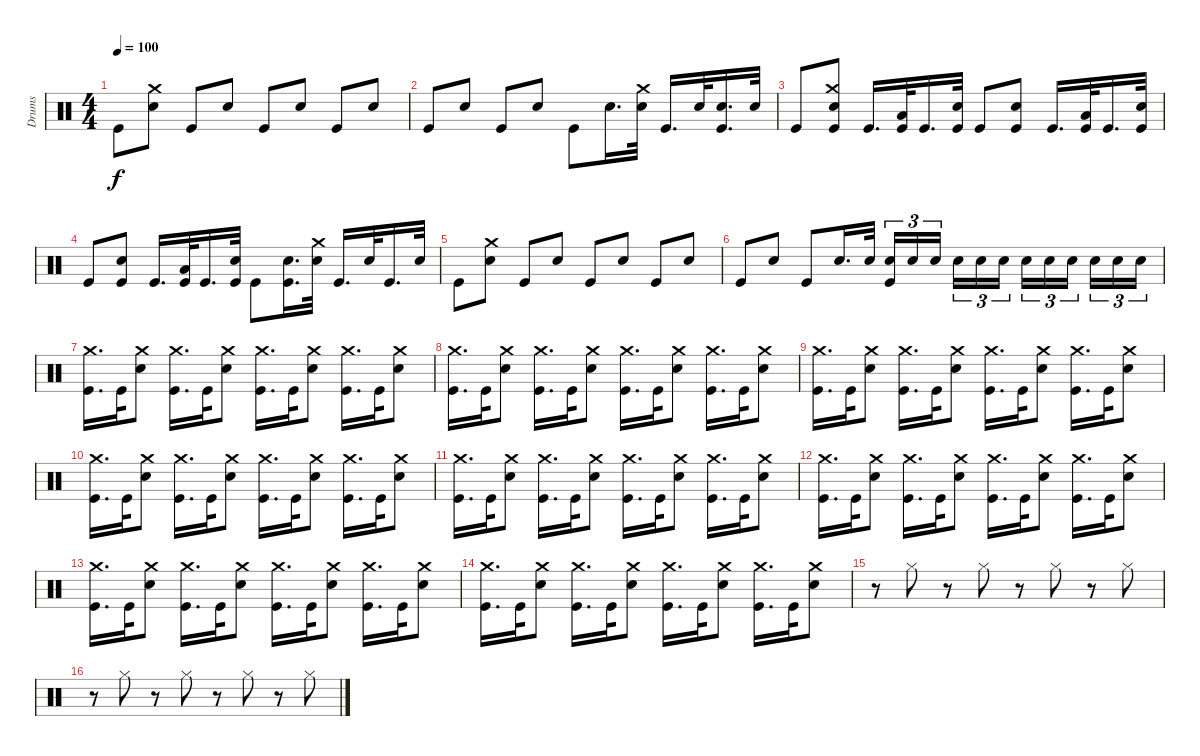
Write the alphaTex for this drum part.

\track ("Drums" "Drums") {instrument percussion}
\staff {score}
\articulation defaults
\ts (4 4)
\tempo 100
\clef neutral
\ks c "Kick (hit)".8{dy f}
("Crash medium (hit)" "Electric Snare (hit)").8 "Kick (hit)".8 "Electric Snare (hit)".8 "Kick (hit)".8 "Electric Snare (hit)".8 "Kick (hit)".8 "Electric Snare (hit)".8 |
"Kick (hit)".8 "Electric Snare (hit)".8 "Kick (hit)".8 "Electric Snare (hit)".8 "Kick (hit)".8 "Electric Snare (hit)".16{d} ("Crash medium (hit)" "Electric Snare (hit)").32 "Kick (hit)".16{d} "Electric Snare (hit)".32 ("Electric Snare (hit)" "Kick (hit)").16{d} "Electric Snare (hit)".32 |
"Kick (hit)".8 ("Crash medium (hit)" "Electric Snare (hit)" "Kick (hit)").8 "Kick (hit)".16{d} ("Low Floor Tom (hit)" "Kick (hit)").32 "Kick (hit)".16{d} ("Electric Snare (hit)" "Kick (hit)").32 "Kick (hit)".8 ("Electric Snare (hit)" "Kick (hit)").8 "Kick (hit)".16{d} ("Low Floor Tom (hit)" "Kick (hit)").32 "Kick (hit)".16{d} ("Electric Snare (hit)" "Kick (hit)").32 |
"Kick (hit)".8 ("Electric Snare (hit)" "Kick (hit)").8 "Kick (hit)".16{d} ("Low Floor Tom (hit)" "Kick (hit)").32 "Kick (hit)".16{d} ("Electric Snare (hit)" "Kick (hit)").32 "Kick (hit)".8 ("Electric Snare (hit)" "Kick (hit)").16{d} ("Crash medium (hit)" "Electric Snare (hit)").32 "Kick (hit)".16{d} "Electric Snare (hit)".32 "Kick (hit)".16{d} "Electric Snare (hit)".32 |
"Kick (hit)".8 ("Crash medium (hit)" "Electric Snare (hit)").8 "Kick (hit)".8 "Electric Snare (hit)".8 "Kick (hit)".8 "Electric Snare (hit)".8 "Kick (hit)".8 "Electric Snare (hit)".8 |
"Kick (hit)".8 "Electric Snare (hit)".8 "Kick (hit)".8 "Electric Snare (hit)".16{d} "Electric Snare (hit)".32 ("Electric Snare (hit)" "Kick (hit)").16{tu (3 2)} "Electric Snare (hit)".16{tu (3 2)} "Electric Snare (hit)".16{tu (3 2) beam splitsecondary} "Electric Snare (hit)".16{tu (3 2)} "Electric Snare (hit)".16{tu (3 2)} "Electric Snare (hit)".16{tu (3 2)} "Electric Snare (hit)".16{tu (3 2)} "Electric Snare (hit)".16{tu (3 2)} "Electric Snare (hit)".16{tu (3 2) beam splitsecondary} "Electric Snare (hit)".16{tu (3 2)} "Electric Snare (hit)".16{tu (3 2)} "Electric Snare (hit)".16{tu (3 2)} |
("Crash medium (hit)" "Kick (hit)").16{d} "Kick (hit)".32 ("Crash medium (hit)" "Electric Snare (hit)").8 ("Crash medium (hit)" "Kick (hit)").16{d} "Kick (hit)".32 ("Crash medium (hit)" "Electric Snare (hit)").8 ("Crash medium (hit)" "Kick (hit)").16{d} "Kick (hit)".32 ("Crash medium (hit)" "Electric Snare (hit)").8 ("Crash medium (hit)" "Kick (hit)").16{d} "Kick (hit)".32 ("Crash medium (hit)" "Electric Snare (hit)").8 |
("Crash medium (hit)" "Kick (hit)").16{d} "Kick (hit)".32 ("Crash medium (hit)" "Electric Snare (hit)").8 ("Crash medium (hit)" "Kick (hit)").16{d} "Kick (hit)".32 ("Crash medium (hit)" "Electric Snare (hit)").8 ("Crash medium (hit)" "Kick (hit)").16{d} "Kick (hit)".32 ("Crash medium (hit)" "Electric Snare (hit)").8 ("Crash medium (hit)" "Kick (hit)").16{d} "Kick (hit)".32 ("Crash medium (hit)" "Electric Snare (hit)").8 |
("Crash medium (hit)" "Kick (hit)").16{d} "Kick (hit)".32 ("Crash medium (hit)" "Electric Snare (hit)").8 ("Crash medium (hit)" "Kick (hit)").16{d} "Kick (hit)".32 ("Crash medium (hit)" "Electric Snare (hit)").8 ("Crash medium (hit)" "Kick (hit)").16{d} "Kick (hit)".32 ("Crash medium (hit)" "Electric Snare (hit)").8 ("Crash medium (hit)" "Kick (hit)").16{d} "Kick (hit)".32 ("Crash medium (hit)" "Electric Snare (hit)").8 |
("Crash medium (hit)" "Kick (hit)").16{d} "Kick (hit)".32 ("Crash medium (hit)" "Electric Snare (hit)").8 ("Crash medium (hit)" "Kick (hit)").16{d} "Kick (hit)".32 ("Crash medium (hit)" "Electric Snare (hit)").8 ("Crash medium (hit)" "Kick (hit)").16{d} "Kick (hit)".32 ("Crash medium (hit)" "Electric Snare (hit)").8 ("Crash medium (hit)" "Kick (hit)").16{d} "Kick (hit)".32 ("Crash medium (hit)" "Electric Snare (hit)").8 |
("Crash medium (hit)" "Kick (hit)").16{d} "Kick (hit)".32 ("Crash medium (hit)" "Electric Snare (hit)").8 ("Crash medium (hit)" "Kick (hit)").16{d} "Kick (hit)".32 ("Crash medium (hit)" "Electric Snare (hit)").8 ("Crash medium (hit)" "Kick (hit)").16{d} "Kick (hit)".32 ("Crash medium (hit)" "Electric Snare (hit)").8 ("Crash medium (hit)" "Kick (hit)").16{d} "Kick (hit)".32 ("Crash medium (hit)" "Electric Snare (hit)").8 |
("Crash medium (hit)" "Kick (hit)").16{d} "Kick (hit)".32 ("Crash medium (hit)" "Electric Snare (hit)").8 ("Crash medium (hit)" "Kick (hit)").16{d} "Kick (hit)".32 ("Crash medium (hit)" "Electric Snare (hit)").8 ("Crash medium (hit)" "Kick (hit)").16{d} "Kick (hit)".32 ("Crash medium (hit)" "Electric Snare (hit)").8 ("Crash medium (hit)" "Kick (hit)").16{d} "Kick (hit)".32 ("Crash medium (hit)" "Electric Snare (hit)").8 |
("Crash medium (hit)" "Kick (hit)").16{d} "Kick (hit)".32 ("Crash medium (hit)" "Electric Snare (hit)").8 ("Crash medium (hit)" "Kick (hit)").16{d} "Kick (hit)".32 ("Crash medium (hit)" "Electric Snare (hit)").8 ("Crash medium (hit)" "Kick (hit)").16{d} "Kick (hit)".32 ("Crash medium (hit)" "Electric Snare (hit)").8 ("Crash medium (hit)" "Kick (hit)").16{d} "Kick (hit)".32 ("Crash medium (hit)" "Electric Snare (hit)").8 |
("Crash medium (hit)" "Kick (hit)").16{d} "Kick (hit)".32 ("Crash medium (hit)" "Electric Snare (hit)").8 ("Crash medium (hit)" "Kick (hit)").16{d} "Kick (hit)".32 ("Crash medium (hit)" "Electric Snare (hit)").8 ("Crash medium (hit)" "Kick (hit)").16{d} "Kick (hit)".32 ("Crash medium (hit)" "Electric Snare (hit)").8 ("Crash medium (hit)" "Kick (hit)").16{d} "Kick (hit)".32 ("Crash medium (hit)" "Electric Snare (hit)").8 |
r.8 "Hi-Hat (closed)".8 r.8 "Hi-Hat (closed)".8 r.8 "Hi-Hat (closed)".8 r.8 "Hi-Hat (closed)".8 |
r.8 "Hi-Hat (closed)".8 r.8 "Hi-Hat (closed)".8 r.8 "Hi-Hat (closed)".8 r.8 "Hi-Hat (closed)".8
